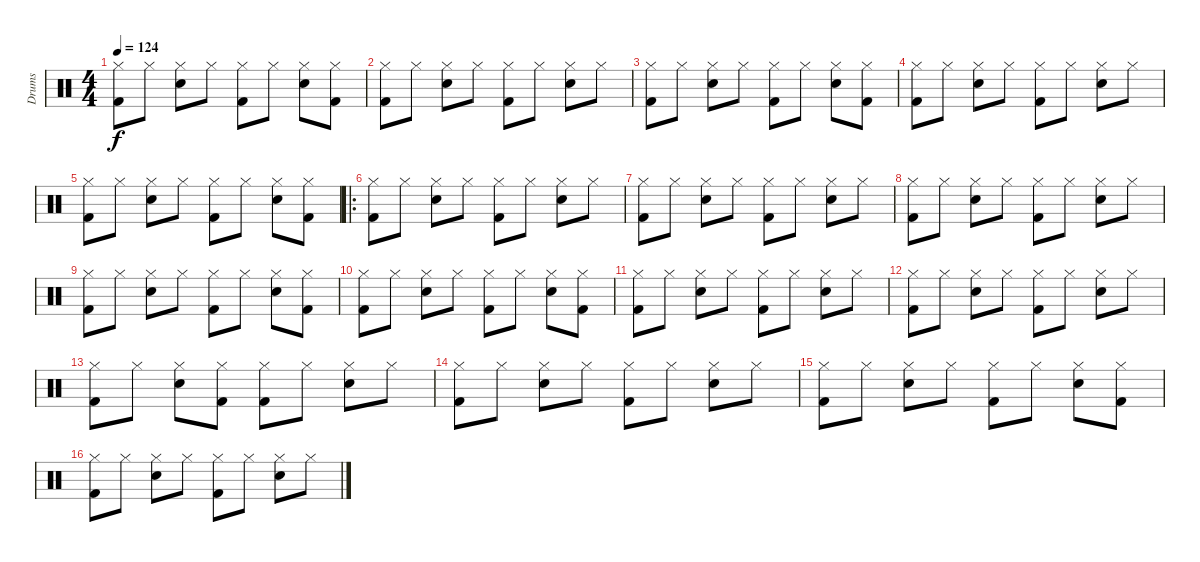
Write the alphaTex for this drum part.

\track ("Drums" "Drums") {instrument percussion}
\staff {score}
\articulation defaults
\ts (4 4)
\tempo 124
\clef neutral
\ks c
("Hi-Hat (closed)" "Kick (hit) 2").8{dy f} "Hi-Hat (closed)".8 ("Hi-Hat (closed)" "Snare (hit) 2").8 "Hi-Hat (closed)".8 ("Hi-Hat (closed)" "Kick (hit) 2").8 "Hi-Hat (closed)".8 ("Hi-Hat (closed)" "Snare (hit) 2").8 ("Hi-Hat (closed)" "Kick (hit) 2").8 |
("Hi-Hat (closed)" "Kick (hit) 2").8 "Hi-Hat (closed)".8 ("Hi-Hat (closed)" "Snare (hit) 2").8 "Hi-Hat (closed)".8 ("Hi-Hat (closed)" "Kick (hit) 2").8 "Hi-Hat (closed)".8 ("Hi-Hat (closed)" "Snare (hit) 2").8 "Hi-Hat (closed)".8 |
("Hi-Hat (closed)" "Kick (hit) 2").8 "Hi-Hat (closed)".8 ("Hi-Hat (closed)" "Snare (hit) 2").8 "Hi-Hat (closed)".8 ("Hi-Hat (closed)" "Kick (hit) 2").8 "Hi-Hat (closed)".8 ("Hi-Hat (closed)" "Snare (hit) 2").8 ("Hi-Hat (closed)" "Kick (hit) 2").8 |
("Hi-Hat (closed)" "Kick (hit) 2").8 "Hi-Hat (closed)".8 ("Hi-Hat (closed)" "Snare (hit) 2").8 "Hi-Hat (closed)".8 ("Hi-Hat (closed)" "Kick (hit) 2").8 "Hi-Hat (closed)".8 ("Hi-Hat (closed)" "Snare (hit) 2").8 "Hi-Hat (closed)".8 |
("Hi-Hat (closed)" "Kick (hit) 2").8 "Hi-Hat (closed)".8 ("Hi-Hat (closed)" "Snare (hit) 2").8 "Hi-Hat (closed)".8 ("Hi-Hat (closed)" "Kick (hit) 2").8 "Hi-Hat (closed)".8 ("Hi-Hat (closed)" "Snare (hit) 2").8 ("Hi-Hat (closed)" "Kick (hit) 2").8 |
\ro
("Hi-Hat (closed)" "Kick (hit) 2").8 "Hi-Hat (closed)".8 ("Hi-Hat (closed)" "Snare (hit) 2").8 "Hi-Hat (closed)".8 ("Hi-Hat (closed)" "Kick (hit) 2").8 "Hi-Hat (closed)".8 ("Hi-Hat (closed)" "Snare (hit) 2").8 "Hi-Hat (closed)".8 |
("Hi-Hat (closed)" "Kick (hit) 2").8 "Hi-Hat (closed)".8 ("Hi-Hat (closed)" "Snare (hit) 2").8 "Hi-Hat (closed)".8 ("Hi-Hat (closed)" "Kick (hit) 2").8 "Hi-Hat (closed)".8 ("Hi-Hat (closed)" "Snare (hit) 2").8 "Hi-Hat (closed)".8 |
("Hi-Hat (closed)" "Kick (hit) 2").8 "Hi-Hat (closed)".8 ("Hi-Hat (closed)" "Snare (hit) 2").8 "Hi-Hat (closed)".8 ("Hi-Hat (closed)" "Kick (hit) 2").8 "Hi-Hat (closed)".8 ("Hi-Hat (closed)" "Snare (hit) 2").8 "Hi-Hat (closed)".8 |
("Hi-Hat (closed)" "Kick (hit) 2").8 "Hi-Hat (closed)".8 ("Hi-Hat (closed)" "Snare (hit) 2").8 "Hi-Hat (closed)".8 ("Hi-Hat (closed)" "Kick (hit) 2").8 "Hi-Hat (closed)".8 ("Hi-Hat (closed)" "Snare (hit) 2").8 ("Hi-Hat (closed)" "Kick (hit) 2").8 |
("Hi-Hat (closed)" "Kick (hit) 2").8 "Hi-Hat (closed)".8 ("Hi-Hat (closed)" "Snare (hit) 2").8 "Hi-Hat (closed)".8 ("Hi-Hat (closed)" "Kick (hit) 2").8 "Hi-Hat (closed)".8 ("Hi-Hat (closed)" "Snare (hit) 2").8 ("Hi-Hat (closed)" "Kick (hit) 2").8 |
("Hi-Hat (closed)" "Kick (hit) 2").8 "Hi-Hat (closed)".8 ("Hi-Hat (closed)" "Snare (hit) 2").8 "Hi-Hat (closed)".8 ("Hi-Hat (closed)" "Kick (hit) 2").8 "Hi-Hat (closed)".8 ("Hi-Hat (closed)" "Snare (hit) 2").8 "Hi-Hat (closed)".8 |
("Hi-Hat (closed)" "Kick (hit) 2").8 "Hi-Hat (closed)".8 ("Hi-Hat (closed)" "Snare (hit) 2").8 "Hi-Hat (closed)".8 ("Hi-Hat (closed)" "Kick (hit) 2").8 "Hi-Hat (closed)".8 ("Hi-Hat (closed)" "Snare (hit) 2").8 "Hi-Hat (closed)".8 |
("Hi-Hat (closed)" "Kick (hit) 2").8 "Hi-Hat (closed)".8 ("Hi-Hat (closed)" "Snare (hit) 2").8 ("Hi-Hat (closed)" "Kick (hit) 2").8 ("Hi-Hat (closed)" "Kick (hit) 2").8 "Hi-Hat (closed)".8 ("Hi-Hat (closed)" "Snare (hit) 2").8 "Hi-Hat (closed)".8 |
("Hi-Hat (closed)" "Kick (hit) 2").8 "Hi-Hat (closed)".8 ("Hi-Hat (closed)" "Snare (hit) 2").8 "Hi-Hat (closed)".8 ("Hi-Hat (closed)" "Kick (hit) 2").8 "Hi-Hat (closed)".8 ("Hi-Hat (closed)" "Snare (hit) 2").8 "Hi-Hat (closed)".8 |
("Hi-Hat (closed)" "Kick (hit) 2").8 "Hi-Hat (closed)".8 ("Hi-Hat (closed)" "Snare (hit) 2").8 "Hi-Hat (closed)".8 ("Hi-Hat (closed)" "Kick (hit) 2").8 "Hi-Hat (closed)".8 ("Hi-Hat (closed)" "Snare (hit) 2").8 ("Hi-Hat (closed)" "Kick (hit) 2").8 |
("Hi-Hat (closed)" "Kick (hit) 2").8 "Hi-Hat (closed)".8 ("Hi-Hat (closed)" "Snare (hit) 2").8 "Hi-Hat (closed)".8 ("Hi-Hat (closed)" "Kick (hit) 2").8 "Hi-Hat (closed)".8 ("Hi-Hat (closed)" "Snare (hit) 2").8 "Hi-Hat (closed)".8
